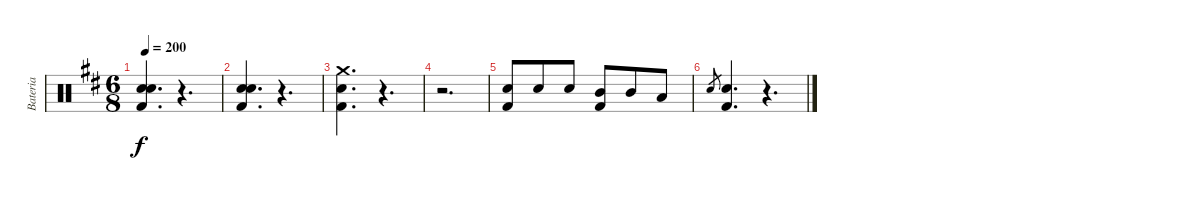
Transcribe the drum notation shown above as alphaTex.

\track ("Bateria" "Bateria") {instrument percussion}
\staff {score}
\articulation defaults
\ts (6 8)
\tempo 200
\clef neutral
\ks bminor
("Electric Snare (hit)" "Electric Snare (hit)" "Kick (hit) 2").4{d dy f} r.4{d} |
("Electric Snare (hit)" "Electric Snare (hit)" "Kick (hit) 2").4{d} r.4{d} |
("Crash medium (hit)" "Electric Snare (hit)" "Kick (hit) 2").4{d} r.4{d} |
r.2{d} |
("Electric Snare (hit)" "Kick (hit) 2").8 "Electric Snare (hit)".8 "Electric Snare (hit)".8 ("Mid Tom (hit)" "Kick (hit) 2").8 "Mid Tom (hit)".8 "Low Tom (hit)".8 |
"Electric Snare (hit)".8{gr} ("Electric Snare (hit)" "Kick (hit) 2").4{d} r.4{d}
